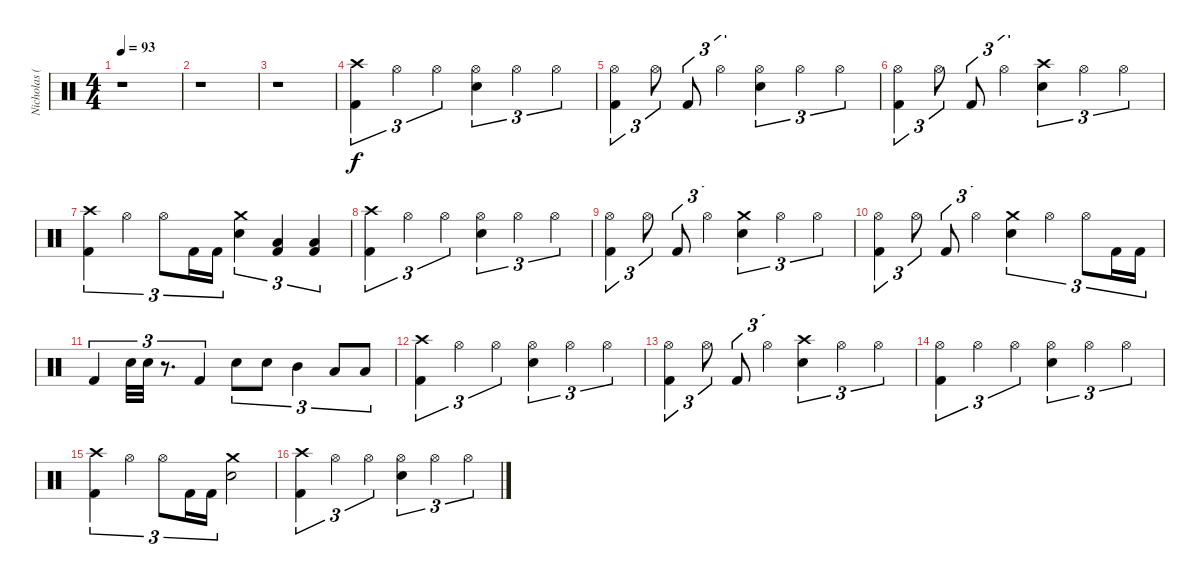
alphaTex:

\track ("Nicholas (Drums)" "Nicholas (") {instrument percussion}
\staff {score}
\articulation defaults
\ts (4 4)
\tempo 93
\clef neutral
\ks c
r.1{dy f} |
r.1 |
r.1 |
("Crash high (hit)" "Kick (hit) 2").4{tu (3 2)} "Hi-Hat (open)".4{tu (3 2)} "Hi-Hat (open)".4{tu (3 2)} ("Hi-Hat (open)" "Electric Snare (hit)").4{tu (3 2)} "Hi-Hat (open)".4{tu (3 2)} "Hi-Hat (open)".4{tu (3 2)} |
("Hi-Hat (open)" "Kick (hit) 2").4{tu (3 2)} "Hi-Hat (open)".8{tu (3 2)} "Kick (hit) 2".8{tu (3 2)} "Hi-Hat (open)".4{tu (3 2)} ("Hi-Hat (open)" "Electric Snare (hit)").4{tu (3 2)} "Hi-Hat (open)".4{tu (3 2)} "Hi-Hat (open)".4{tu (3 2)} |
("Hi-Hat (open)" "Kick (hit) 2").4{tu (3 2)} "Hi-Hat (open)".8{tu (3 2)} "Kick (hit) 2".8{tu (3 2)} "Hi-Hat (open)".4{tu (3 2)} ("Crash high (hit)" "Electric Snare (hit)").4{tu (3 2)} "Hi-Hat (open)".4{tu (3 2)} "Hi-Hat (open)".4{tu (3 2)} |
("Crash high (hit)" "Kick (hit) 2").4{tu (3 2)} "Hi-Hat (open)".4{tu (3 2)} "Hi-Hat (open)".8{tu (3 2)} "Kick (hit) 2".16{tu (3 2)} "Kick (hit) 2".16{tu (3 2)} ("Crash medium (hit)" "Electric Snare (hit)").4{tu (3 2)} ("Low Floor Tom (hit)" "Kick (hit) 2").4{tu (3 2)} ("Low Floor Tom (hit)" "Kick (hit) 2").4{tu (3 2)} |
("Crash high (hit)" "Kick (hit) 2").4{tu (3 2)} "Hi-Hat (open)".4{tu (3 2)} "Hi-Hat (open)".4{tu (3 2)} ("Hi-Hat (open)" "Electric Snare (hit)").4{tu (3 2)} "Hi-Hat (open)".4{tu (3 2)} "Hi-Hat (open)".4{tu (3 2)} |
("Hi-Hat (open)" "Kick (hit) 2").4{tu (3 2)} "Hi-Hat (open)".8{tu (3 2)} "Kick (hit) 2".8{tu (3 2)} "Hi-Hat (open)".4{tu (3 2)} ("Crash medium (hit)" "Electric Snare (hit)").4{tu (3 2)} "Hi-Hat (open)".4{tu (3 2)} "Hi-Hat (open)".4{tu (3 2)} |
("Hi-Hat (open)" "Kick (hit) 2").4{tu (3 2)} "Hi-Hat (open)".8{tu (3 2)} "Kick (hit) 2".8{tu (3 2)} "Hi-Hat (open)".4{tu (3 2)} ("Crash medium (hit)" "Electric Snare (hit)").4{tu (3 2)} "Hi-Hat (open)".4{tu (3 2)} "Hi-Hat (open)".8{tu (3 2)} "Kick (hit) 2".16{tu (3 2)} "Kick (hit) 2".16{tu (3 2)} |
"Kick (hit) 2".4{tu (3 2)} "Electric Snare (hit)".32{tu (3 2)} "Electric Snare (hit)".32{tu (3 2)} r.8{d tu (3 2)} "Kick (hit) 2".4{tu (3 2)} "Electric Snare (hit)".8{tu (3 2)} "Electric Snare (hit)".8{tu (3 2)} "Mid Tom (hit)".4{tu (3 2)} "Low Tom (hit)".8{tu (3 2)} "Low Tom (hit)".8{tu (3 2)} |
("Crash high (hit)" "Kick (hit) 2").4{tu (3 2)} "Hi-Hat (open)".4{tu (3 2)} "Hi-Hat (open)".4{tu (3 2)} ("Hi-Hat (open)" "Electric Snare (hit)").4{tu (3 2)} "Hi-Hat (open)".4{tu (3 2)} "Hi-Hat (open)".4{tu (3 2)} |
("Hi-Hat (open)" "Kick (hit) 2").4{tu (3 2)} "Hi-Hat (open)".8{tu (3 2)} "Kick (hit) 2".8{tu (3 2)} "Hi-Hat (open)".4{tu (3 2)} ("Crash high (hit)" "Electric Snare (hit)").4{tu (3 2)} "Hi-Hat (open)".4{tu (3 2)} "Hi-Hat (open)".4{tu (3 2)} |
("Hi-Hat (open)" "Kick (hit) 2").4{tu (3 2)} "Hi-Hat (open)".4{tu (3 2)} "Hi-Hat (open)".4{tu (3 2)} ("Hi-Hat (open)" "Electric Snare (hit)").4{tu (3 2)} "Hi-Hat (open)".4{tu (3 2)} "Hi-Hat (open)".4{tu (3 2)} |
("Crash high (hit)" "Kick (hit) 2").4{tu (3 2)} "Hi-Hat (open)".4{tu (3 2)} "Hi-Hat (open)".8{tu (3 2)} "Kick (hit) 2".16{tu (3 2)} "Kick (hit) 2".16{tu (3 2)} ("Crash medium (hit)" "Electric Snare (hit)").2 |
("Crash high (hit)" "Kick (hit) 2").4{tu (3 2)} "Hi-Hat (open)".4{tu (3 2)} "Hi-Hat (open)".4{tu (3 2)} ("Hi-Hat (open)" "Electric Snare (hit)").4{tu (3 2)} "Hi-Hat (open)".4{tu (3 2)} "Hi-Hat (open)".4{tu (3 2)}
